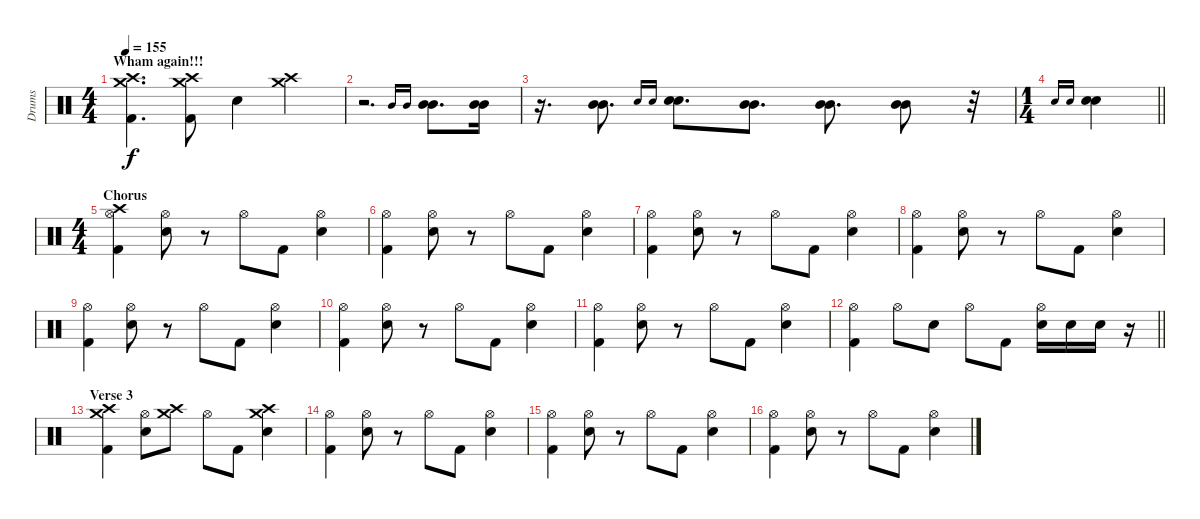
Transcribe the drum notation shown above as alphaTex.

\track ("Drums" "Drums") {instrument percussion}
\staff {score}
\articulation defaults
\ts (4 4)
\section ("" "Wham again!!!")
\tempo 155
\clef neutral
\ks c
("Crash high (hit)" "Crash medium (hit)" "Kick (hit) 2").4{d dy f} ("Crash high (hit)" "Crash medium (hit)" "Kick (hit) 2").8 "Electric Snare (hit)".4 ("Crash high (hit)" "Crash medium (hit)").4 |
r.2{d} "Mid Tom (hit)".16{gr onbeat} "Mid Tom (hit)".16{gr onbeat} ("Mid Tom (hit)" "Mid Tom (hit)").8{d} ("Mid Tom (hit)" "Mid Tom (hit)").16 |
r.16{d} ("Mid Tom (hit)" "Mid Tom (hit)").8{d} "Electric Snare (hit)".16{gr onbeat} "Electric Snare (hit)".16{gr onbeat} ("Electric Snare (hit)" "Electric Snare (hit)").8{d} ("Mid Tom (hit)" "Mid Tom (hit)").8{d} ("Mid Tom (hit)" "Mid Tom (hit)").8{d} ("Mid Tom (hit)" "Mid Tom (hit)").8 r.32 |
\ts (1 4)
\barLineRight lightlight "Electric Snare (hit)".16{gr onbeat} "Electric Snare (hit)".16{gr onbeat}
("Electric Snare (hit)" "Electric Snare (hit)").4 |
\ts (4 4)
\section ("" "Chorus")
("Hi-Hat (open)" "Crash high (hit)" "Kick (hit) 2").4 ("Hi-Hat (open)" "Electric Snare (hit)").8 r.8 "Hi-Hat (open)".8 "Kick (hit) 2".8 ("Hi-Hat (open)" "Electric Snare (hit)").4 |
("Hi-Hat (open)" "Kick (hit) 2").4 ("Hi-Hat (open)" "Electric Snare (hit)").8 r.8 "Hi-Hat (open)".8 "Kick (hit) 2".8 ("Hi-Hat (open)" "Electric Snare (hit)").4 |
("Hi-Hat (open)" "Kick (hit) 2").4 ("Hi-Hat (open)" "Electric Snare (hit)").8 r.8 "Hi-Hat (open)".8 "Kick (hit) 2".8 ("Hi-Hat (open)" "Electric Snare (hit)").4 |
("Hi-Hat (open)" "Kick (hit) 2").4 ("Hi-Hat (open)" "Electric Snare (hit)").8 r.8 "Hi-Hat (open)".8 "Kick (hit) 2".8 ("Hi-Hat (open)" "Electric Snare (hit)").4 |
("Hi-Hat (open)" "Kick (hit) 2").4 ("Hi-Hat (open)" "Electric Snare (hit)").8 r.8 "Hi-Hat (open)".8 "Kick (hit) 2".8 ("Hi-Hat (open)" "Electric Snare (hit)").4 |
("Hi-Hat (open)" "Kick (hit) 2").4 ("Hi-Hat (open)" "Electric Snare (hit)").8 r.8 "Hi-Hat (open)".8 "Kick (hit) 2".8 ("Hi-Hat (open)" "Electric Snare (hit)").4 |
("Hi-Hat (open)" "Kick (hit) 2").4 ("Hi-Hat (open)" "Electric Snare (hit)").8 r.8 "Hi-Hat (open)".8 "Kick (hit) 2".8 ("Hi-Hat (open)" "Electric Snare (hit)").4 |
\barLineRight lightlight
("Hi-Hat (open)" "Kick (hit) 2").4 "Hi-Hat (open)".8 "Electric Snare (hit)".8 "Hi-Hat (open)".8 "Kick (hit) 2".8 ("Hi-Hat (open)" "Electric Snare (hit)").16 "Electric Snare (hit)".16 "Electric Snare (hit)".16 r.16 |
\section ("" "Verse 3")
("Crash high (hit)" "Crash medium (hit)" "Kick (hit) 2").4 ("Hi-Hat (open)" "Electric Snare (hit)").8 ("Crash high (hit)" "Crash medium (hit)").8 "Hi-Hat (open)".8 "Kick (hit) 2".8 ("Crash high (hit)" "Crash medium (hit)" "Electric Snare (hit)").4 |
("Hi-Hat (open)" "Kick (hit) 2").4 ("Hi-Hat (open)" "Electric Snare (hit)").8 r.8 "Hi-Hat (open)".8 "Kick (hit) 2".8 ("Hi-Hat (open)" "Electric Snare (hit)").4 |
("Hi-Hat (open)" "Kick (hit) 2").4 ("Hi-Hat (open)" "Electric Snare (hit)").8 r.8 "Hi-Hat (open)".8 "Kick (hit) 2".8 ("Hi-Hat (open)" "Electric Snare (hit)").4 |
("Hi-Hat (open)" "Kick (hit) 2").4 ("Hi-Hat (open)" "Electric Snare (hit)").8 r.8 "Hi-Hat (open)".8 "Kick (hit) 2".8 ("Hi-Hat (open)" "Electric Snare (hit)").4
